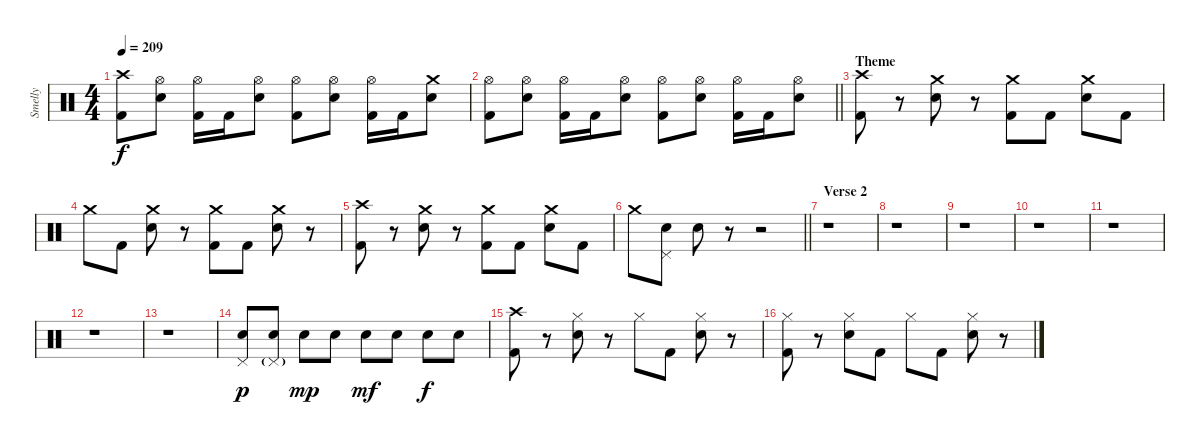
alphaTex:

\track ("Smelly" "Smelly") {instrument percussion}
\staff {score}
\articulation defaults
\ts (4 4)
\tempo 209
\clef neutral
\ks c
("Crash high (hit)" "Kick (hit) 2").8{dy f} ("Hi-Hat (open)" "Electric Snare (hit)").8 ("Hi-Hat (open)" "Kick (hit) 2").16 "Kick (hit) 2".16 ("Hi-Hat (open)" "Electric Snare (hit)").8 ("Hi-Hat (open)" "Kick (hit) 2").8 ("Hi-Hat (open)" "Electric Snare (hit)").8 ("Hi-Hat (open)" "Kick (hit) 2").16 "Kick (hit) 2".16 ("Crash medium (hit)" "Electric Snare (hit)").8 |
\barLineRight lightlight
("Hi-Hat (open)" "Kick (hit) 2").8 ("Hi-Hat (open)" "Electric Snare (hit)").8 ("Hi-Hat (open)" "Kick (hit) 2").16 "Kick (hit) 2".16 ("Hi-Hat (open)" "Electric Snare (hit)").8 ("Hi-Hat (open)" "Kick (hit) 2").8 ("Hi-Hat (open)" "Electric Snare (hit)").8 ("Hi-Hat (open)" "Kick (hit) 2").16 "Kick (hit) 2".16 ("Hi-Hat (open)" "Electric Snare (hit)").8 |
\section ("" "Theme")
("Crash high (hit)" "Kick (hit) 2").8 r.8 ("Crash medium (hit)" "Electric Snare (hit)").8 r.8 ("Crash medium (hit)" "Kick (hit) 2").8 "Kick (hit) 2".8 ("Crash medium (hit)" "Electric Snare (hit)").8 "Kick (hit) 2".8 |
"Crash medium (hit)".8 "Kick (hit) 2".8 ("Crash medium (hit)" "Electric Snare (hit)").8 r.8 ("Crash medium (hit)" "Kick (hit) 2").8 "Kick (hit) 2".8 ("Crash medium (hit)" "Electric Snare (hit)").8 r.8 |
("Crash high (hit)" "Kick (hit) 2").8 r.8 ("Crash medium (hit)" "Electric Snare (hit)").8 r.8 ("Crash medium (hit)" "Kick (hit) 2").8 "Kick (hit) 2".8 ("Crash medium (hit)" "Electric Snare (hit)").8 "Kick (hit) 2".8 |
\barLineRight lightlight "Crash medium (hit)".8
("Pedal Hi-Hat (hit)" "Electric Snare (hit)").8 "Electric Snare (hit)".8 r.8 r.2 |
\section ("" "Verse 2")
r.1 |
r.1 |
r.1 |
r.1 |
r.1 |
r.1 |
r.1 |
("Pedal Hi-Hat (hit)" "Electric Snare (hit)").8{dy p} ("Pedal Hi-Hat (hit)"{g} "Electric Snare (hit)").8 "Electric Snare (hit)".8{dy mp} "Electric Snare (hit)".8 "Electric Snare (hit)".8{dy mf} "Electric Snare (hit)".8 "Electric Snare (hit)".8{dy f} "Electric Snare (hit)".8 |
("Crash high (hit)" "Kick (hit) 2").8 r.8 ("Hi-Hat (closed)" "Electric Snare (hit)").8 r.8 "Hi-Hat (closed)".8 "Kick (hit) 2".8 ("Hi-Hat (closed)" "Electric Snare (hit)").8 r.8 |
("Hi-Hat (closed)" "Kick (hit) 2").8 r.8 ("Hi-Hat (closed)" "Electric Snare (hit)").8 "Kick (hit) 2".8 "Hi-Hat (closed)".8 "Kick (hit) 2".8 ("Hi-Hat (closed)" "Electric Snare (hit)").8 r.8
